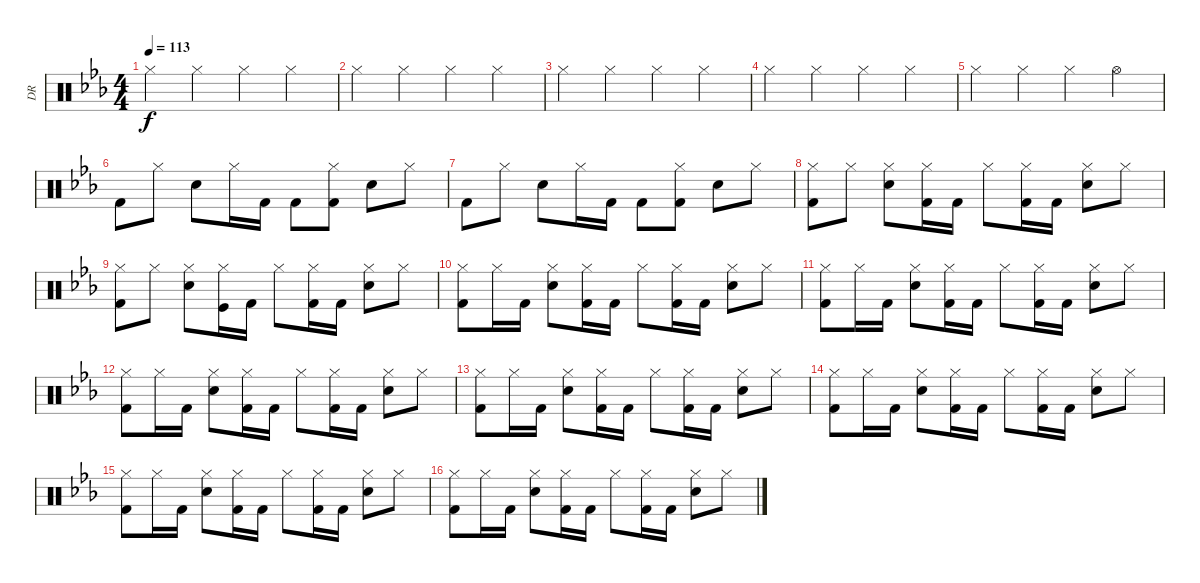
\track ("DR" "DR") {instrument percussion}
\staff {score}
\articulation defaults
\ts (4 4)
\tempo 113
\clef neutral
\ks cminor "Hi-Hat (closed)".4{dy f} "Hi-Hat (closed)".4 "Hi-Hat (closed)".4 "Hi-Hat (closed)".4
|
"Hi-Hat (closed)".4 "Hi-Hat (closed)".4 "Hi-Hat (closed)".4 "Hi-Hat (closed)".4 |
"Hi-Hat (closed)".4 "Hi-Hat (closed)".4 "Hi-Hat (closed)".4 "Hi-Hat (closed)".4 |
"Hi-Hat (closed)".4 "Hi-Hat (closed)".4 "Hi-Hat (closed)".4 "Hi-Hat (closed)".4 |
"Hi-Hat (closed)".4 "Hi-Hat (closed)".4 "Hi-Hat (closed)".4 "Hi-Hat (open)".4 |
"Kick (hit) 2".8 "Hi-Hat (closed)".8 "Electric Snare (hit)".8 "Hi-Hat (closed)".16 "Kick (hit) 2".16 "Kick (hit) 2".8 ("Hi-Hat (closed)" "Kick (hit) 2").8 "Electric Snare (hit)".8 "Hi-Hat (closed)".8 |
"Kick (hit) 2".8 "Hi-Hat (closed)".8 "Electric Snare (hit)".8 "Hi-Hat (closed)".16 "Kick (hit) 2".16 "Kick (hit) 2".8 ("Hi-Hat (closed)" "Kick (hit) 2").8 "Electric Snare (hit)".8 "Hi-Hat (closed)".8 |
("Hi-Hat (closed)" "Kick (hit) 2").8 "Hi-Hat (closed)".8 ("Hi-Hat (closed)" "Electric Snare (hit)").8 ("Hi-Hat (closed)" "Kick (hit) 2").16 "Kick (hit) 2".16 "Hi-Hat (closed)".8 ("Hi-Hat (closed)" "Kick (hit) 2").16 "Kick (hit) 2".16 ("Hi-Hat (closed)" "Electric Snare (hit)").8 "Hi-Hat (closed)".8 |
("Hi-Hat (closed)" "Kick (hit) 2").8 "Hi-Hat (closed)".8 ("Hi-Hat (closed)" "Electric Snare (hit)").8 ("Hi-Hat (closed)" "Kick (hit)").16 "Kick (hit) 2".16 "Hi-Hat (closed)".8 ("Hi-Hat (closed)" "Kick (hit) 2").16 "Kick (hit) 2".16 ("Hi-Hat (closed)" "Electric Snare (hit)").8 "Hi-Hat (closed)".8 |
("Hi-Hat (closed)" "Kick (hit) 2").8 "Hi-Hat (closed)".16 "Kick (hit) 2".16 ("Hi-Hat (closed)" "Electric Snare (hit)").8 ("Hi-Hat (closed)" "Kick (hit) 2").16 "Kick (hit) 2".16 "Hi-Hat (closed)".8 ("Hi-Hat (closed)" "Kick (hit) 2").16 "Kick (hit) 2".16 ("Hi-Hat (closed)" "Electric Snare (hit)").8 "Hi-Hat (closed)".8 |
("Hi-Hat (closed)" "Kick (hit) 2").8 "Hi-Hat (closed)".16 "Kick (hit) 2".16 ("Hi-Hat (closed)" "Electric Snare (hit)").8 ("Hi-Hat (closed)" "Kick (hit) 2").16 "Kick (hit) 2".16 "Hi-Hat (closed)".8 ("Hi-Hat (closed)" "Kick (hit) 2").16 "Kick (hit) 2".16 ("Hi-Hat (closed)" "Electric Snare (hit)").8 "Hi-Hat (closed)".8 |
("Hi-Hat (closed)" "Kick (hit) 2").8 "Hi-Hat (closed)".16 "Kick (hit) 2".16 ("Hi-Hat (closed)" "Electric Snare (hit)").8 ("Hi-Hat (closed)" "Kick (hit) 2").16 "Kick (hit) 2".16 "Hi-Hat (closed)".8 ("Hi-Hat (closed)" "Kick (hit) 2").16 "Kick (hit) 2".16 ("Hi-Hat (closed)" "Electric Snare (hit)").8 "Hi-Hat (closed)".8 |
("Hi-Hat (closed)" "Kick (hit) 2").8 "Hi-Hat (closed)".16 "Kick (hit) 2".16 ("Hi-Hat (closed)" "Electric Snare (hit)").8 ("Hi-Hat (closed)" "Kick (hit) 2").16 "Kick (hit) 2".16 "Hi-Hat (closed)".8 ("Hi-Hat (closed)" "Kick (hit) 2").16 "Kick (hit) 2".16 ("Hi-Hat (closed)" "Electric Snare (hit)").8 "Hi-Hat (closed)".8 |
("Hi-Hat (closed)" "Kick (hit) 2").8 "Hi-Hat (closed)".16 "Kick (hit) 2".16 ("Hi-Hat (closed)" "Electric Snare (hit)").8 ("Hi-Hat (closed)" "Kick (hit) 2").16 "Kick (hit) 2".16 "Hi-Hat (closed)".8 ("Hi-Hat (closed)" "Kick (hit) 2").16 "Kick (hit) 2".16 ("Hi-Hat (closed)" "Electric Snare (hit)").8 "Hi-Hat (closed)".8 |
("Hi-Hat (closed)" "Kick (hit) 2").8 "Hi-Hat (closed)".16 "Kick (hit) 2".16 ("Hi-Hat (closed)" "Electric Snare (hit)").8 ("Hi-Hat (closed)" "Kick (hit) 2").16 "Kick (hit) 2".16 "Hi-Hat (closed)".8 ("Hi-Hat (closed)" "Kick (hit) 2").16 "Kick (hit) 2".16 ("Hi-Hat (closed)" "Electric Snare (hit)").8 "Hi-Hat (closed)".8 |
("Hi-Hat (closed)" "Kick (hit) 2").8 "Hi-Hat (closed)".16 "Kick (hit) 2".16 ("Hi-Hat (closed)" "Electric Snare (hit)").8 ("Hi-Hat (closed)" "Kick (hit) 2").16 "Kick (hit) 2".16 "Hi-Hat (closed)".8 ("Hi-Hat (closed)" "Kick (hit) 2").16 "Kick (hit) 2".16 ("Hi-Hat (closed)" "Electric Snare (hit)").8 "Hi-Hat (closed)".8
